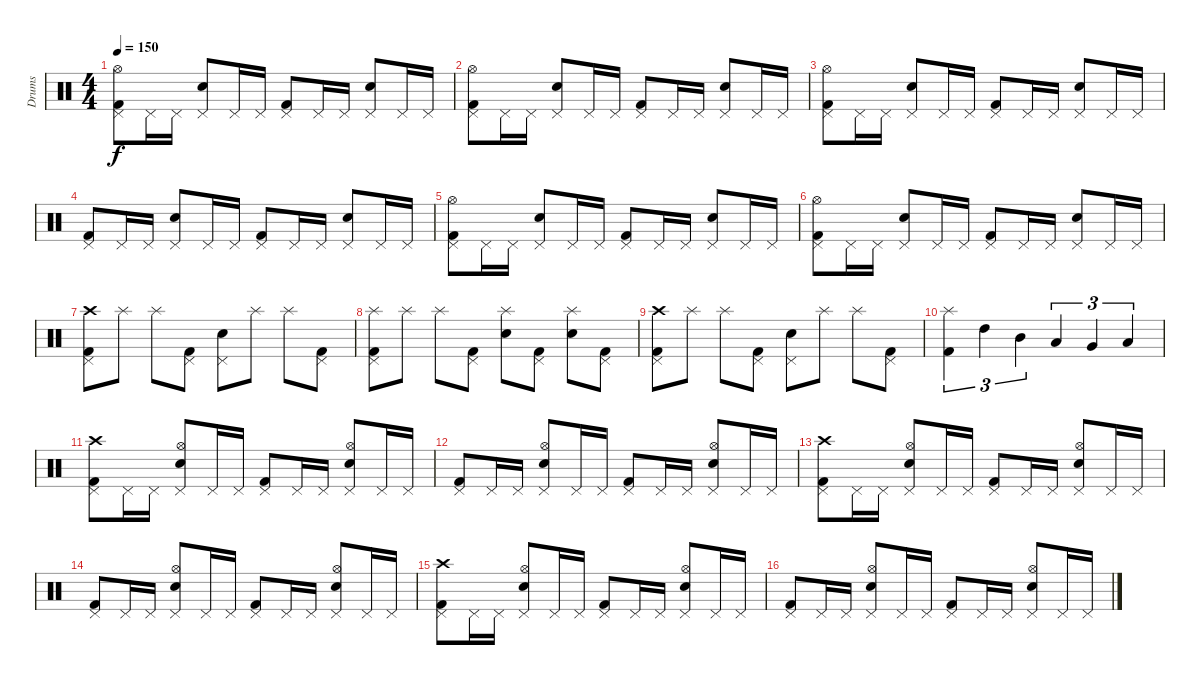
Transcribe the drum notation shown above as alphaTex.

\track ("Drums" "Drums") {instrument percussion}
\staff {score}
\articulation defaults
\ts (4 4)
\tempo 150
\clef neutral
\ks c
("Kick (hit) 2" "Pedal Hi-Hat (hit)" "Hi-Hat (open)").8{dy f} "Pedal Hi-Hat (hit)".16 "Pedal Hi-Hat (hit)".16 ("Snare (hit) 2" "Pedal Hi-Hat (hit)").8 "Pedal Hi-Hat (hit)".16 "Pedal Hi-Hat (hit)".16 ("Kick (hit) 2" "Pedal Hi-Hat (hit)").8 "Pedal Hi-Hat (hit)".16 "Pedal Hi-Hat (hit)".16 ("Snare (hit) 2" "Pedal Hi-Hat (hit)").8 "Pedal Hi-Hat (hit)".16 "Pedal Hi-Hat (hit)".16 |
("Kick (hit) 2" "Pedal Hi-Hat (hit)" "Hi-Hat (open)").8 "Pedal Hi-Hat (hit)".16 "Pedal Hi-Hat (hit)".16 ("Snare (hit) 2" "Pedal Hi-Hat (hit)").8 "Pedal Hi-Hat (hit)".16 "Pedal Hi-Hat (hit)".16 ("Kick (hit) 2" "Pedal Hi-Hat (hit)").8 "Pedal Hi-Hat (hit)".16 "Pedal Hi-Hat (hit)".16 ("Snare (hit) 2" "Pedal Hi-Hat (hit)").8 "Pedal Hi-Hat (hit)".16 "Pedal Hi-Hat (hit)".16 |
("Kick (hit) 2" "Pedal Hi-Hat (hit)" "Hi-Hat (open)").8 "Pedal Hi-Hat (hit)".16 "Pedal Hi-Hat (hit)".16 ("Snare (hit) 2" "Pedal Hi-Hat (hit)").8 "Pedal Hi-Hat (hit)".16 "Pedal Hi-Hat (hit)".16 ("Kick (hit) 2" "Pedal Hi-Hat (hit)").8 "Pedal Hi-Hat (hit)".16 "Pedal Hi-Hat (hit)".16 ("Snare (hit) 2" "Pedal Hi-Hat (hit)").8 "Pedal Hi-Hat (hit)".16 "Pedal Hi-Hat (hit)".16 |
("Kick (hit) 2" "Pedal Hi-Hat (hit)").8 "Pedal Hi-Hat (hit)".16 "Pedal Hi-Hat (hit)".16 ("Snare (hit) 2" "Pedal Hi-Hat (hit)").8 "Pedal Hi-Hat (hit)".16 "Pedal Hi-Hat (hit)".16 ("Kick (hit) 2" "Pedal Hi-Hat (hit)").8 "Pedal Hi-Hat (hit)".16 "Pedal Hi-Hat (hit)".16 ("Snare (hit) 2" "Pedal Hi-Hat (hit)").8 "Pedal Hi-Hat (hit)".16 "Pedal Hi-Hat (hit)".16 |
("Kick (hit) 2" "Pedal Hi-Hat (hit)" "Hi-Hat (open)").8 "Pedal Hi-Hat (hit)".16 "Pedal Hi-Hat (hit)".16 ("Snare (hit) 2" "Pedal Hi-Hat (hit)").8 "Pedal Hi-Hat (hit)".16 "Pedal Hi-Hat (hit)".16 ("Kick (hit) 2" "Pedal Hi-Hat (hit)").8 "Pedal Hi-Hat (hit)".16 "Pedal Hi-Hat (hit)".16 ("Snare (hit) 2" "Pedal Hi-Hat (hit)").8 "Pedal Hi-Hat (hit)".16 "Pedal Hi-Hat (hit)".16 |
("Kick (hit) 2" "Pedal Hi-Hat (hit)" "Hi-Hat (open)").8 "Pedal Hi-Hat (hit)".16 "Pedal Hi-Hat (hit)".16 ("Snare (hit) 2" "Pedal Hi-Hat (hit)").8 "Pedal Hi-Hat (hit)".16 "Pedal Hi-Hat (hit)".16 ("Kick (hit) 2" "Pedal Hi-Hat (hit)").8 "Pedal Hi-Hat (hit)".16 "Pedal Hi-Hat (hit)".16 ("Snare (hit) 2" "Pedal Hi-Hat (hit)").8 "Pedal Hi-Hat (hit)".16 "Pedal Hi-Hat (hit)".16 |
("Kick (hit) 2" "Pedal Hi-Hat (hit)" "Crash high (hit)").8 "Splash (hit)".8 "Splash (hit)".8 ("Kick (hit) 2" "Pedal Hi-Hat (hit)").8 ("Snare (hit) 2" "Pedal Hi-Hat (hit)").8 "Splash (hit)".8 "Splash (hit)".8 ("Kick (hit) 2" "Pedal Hi-Hat (hit)").8 |
("Kick (hit) 2" "Pedal Hi-Hat (hit)" "Splash (hit)").8 "Splash (hit)".8 "Splash (hit)".8 ("Kick (hit) 2" "Pedal Hi-Hat (hit)").8 ("Snare (hit) 2" "Splash (hit)").8 ("Kick (hit) 2" "Pedal Hi-Hat (hit)").8 ("Snare (hit) 2" "Splash (hit)").8 ("Kick (hit) 2" "Pedal Hi-Hat (hit)").8 |
("Kick (hit) 2" "Pedal Hi-Hat (hit)" "Crash high (hit)").8 "Splash (hit)".8 "Splash (hit)".8 ("Kick (hit) 2" "Pedal Hi-Hat (hit)").8 ("Snare (hit) 2" "Pedal Hi-Hat (hit)").8 "Splash (hit)".8 "Splash (hit)".8 ("Kick (hit) 2" "Pedal Hi-Hat (hit)").8 |
("Kick (hit) 2" "Splash (hit)").4{tu (3 2)} "High Tom (hit)".4{tu (3 2)} "Mid Tom (hit)".4{tu (3 2)} "Low Tom (hit)".4{tu (3 2)} "Very Low Tom (hit)".4{tu (3 2)} "Low Floor Tom (hit)".4{tu (3 2)} |
("Kick (hit) 2" "Pedal Hi-Hat (hit)" "Crash high (hit)").8 "Pedal Hi-Hat (hit)".16 "Pedal Hi-Hat (hit)".16 ("Snare (hit) 2" "Pedal Hi-Hat (hit)" "Hi-Hat (open)").8 "Pedal Hi-Hat (hit)".16 "Pedal Hi-Hat (hit)".16 ("Kick (hit) 2" "Pedal Hi-Hat (hit)").8 "Pedal Hi-Hat (hit)".16 "Pedal Hi-Hat (hit)".16 ("Snare (hit) 2" "Pedal Hi-Hat (hit)" "Hi-Hat (open)").8 "Pedal Hi-Hat (hit)".16 "Pedal Hi-Hat (hit)".16 |
("Kick (hit) 2" "Pedal Hi-Hat (hit)").8 "Pedal Hi-Hat (hit)".16 "Pedal Hi-Hat (hit)".16 ("Snare (hit) 2" "Pedal Hi-Hat (hit)" "Hi-Hat (open)").8 "Pedal Hi-Hat (hit)".16 "Pedal Hi-Hat (hit)".16 ("Kick (hit) 2" "Pedal Hi-Hat (hit)").8 "Pedal Hi-Hat (hit)".16 "Pedal Hi-Hat (hit)".16 ("Snare (hit) 2" "Pedal Hi-Hat (hit)" "Hi-Hat (open)").8 "Pedal Hi-Hat (hit)".16 "Pedal Hi-Hat (hit)".16 |
("Kick (hit) 2" "Pedal Hi-Hat (hit)" "Crash high (hit)").8 "Pedal Hi-Hat (hit)".16 "Pedal Hi-Hat (hit)".16 ("Snare (hit) 2" "Pedal Hi-Hat (hit)" "Hi-Hat (open)").8 "Pedal Hi-Hat (hit)".16 "Pedal Hi-Hat (hit)".16 ("Kick (hit) 2" "Pedal Hi-Hat (hit)").8 "Pedal Hi-Hat (hit)".16 "Pedal Hi-Hat (hit)".16 ("Snare (hit) 2" "Pedal Hi-Hat (hit)" "Hi-Hat (open)").8 "Pedal Hi-Hat (hit)".16 "Pedal Hi-Hat (hit)".16 |
("Kick (hit) 2" "Pedal Hi-Hat (hit)").8 "Pedal Hi-Hat (hit)".16 "Pedal Hi-Hat (hit)".16 ("Snare (hit) 2" "Pedal Hi-Hat (hit)" "Hi-Hat (open)").8 "Pedal Hi-Hat (hit)".16 "Pedal Hi-Hat (hit)".16 ("Kick (hit) 2" "Pedal Hi-Hat (hit)").8 "Pedal Hi-Hat (hit)".16 "Pedal Hi-Hat (hit)".16 ("Snare (hit) 2" "Pedal Hi-Hat (hit)" "Hi-Hat (open)").8 "Pedal Hi-Hat (hit)".16 "Pedal Hi-Hat (hit)".16 |
("Kick (hit) 2" "Pedal Hi-Hat (hit)" "Crash high (hit)").8 "Pedal Hi-Hat (hit)".16 "Pedal Hi-Hat (hit)".16 ("Snare (hit) 2" "Pedal Hi-Hat (hit)" "Hi-Hat (open)").8 "Pedal Hi-Hat (hit)".16 "Pedal Hi-Hat (hit)".16 ("Kick (hit) 2" "Pedal Hi-Hat (hit)").8 "Pedal Hi-Hat (hit)".16 "Pedal Hi-Hat (hit)".16 ("Snare (hit) 2" "Pedal Hi-Hat (hit)" "Hi-Hat (open)").8 "Pedal Hi-Hat (hit)".16 "Pedal Hi-Hat (hit)".16 |
("Kick (hit) 2" "Pedal Hi-Hat (hit)").8 "Pedal Hi-Hat (hit)".16 "Pedal Hi-Hat (hit)".16 ("Snare (hit) 2" "Pedal Hi-Hat (hit)" "Hi-Hat (open)").8 "Pedal Hi-Hat (hit)".16 "Pedal Hi-Hat (hit)".16 ("Kick (hit) 2" "Pedal Hi-Hat (hit)").8 "Pedal Hi-Hat (hit)".16 "Pedal Hi-Hat (hit)".16 ("Snare (hit) 2" "Pedal Hi-Hat (hit)" "Hi-Hat (open)").8 "Pedal Hi-Hat (hit)".16 "Pedal Hi-Hat (hit)".16
